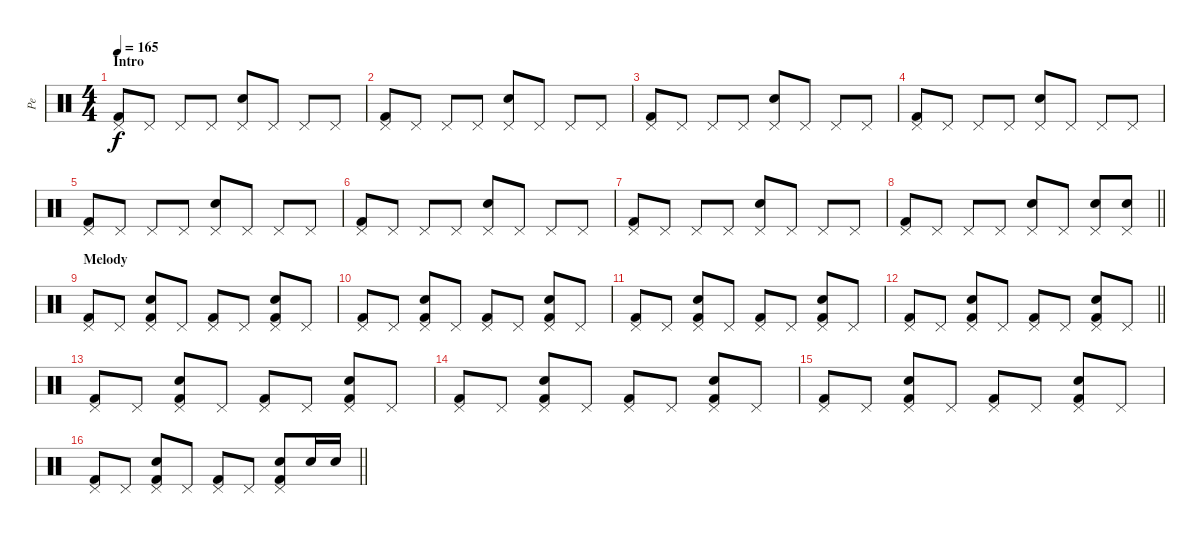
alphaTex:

\track ("Pe" "Pe") {instrument percussion}
\staff {score}
\articulation defaults
\ts (4 4)
\section ("" "Intro")
\tempo 165
\clef neutral
\ks c
("Kick (hit) 2" "Pedal Hi-Hat (hit)").8{dy f} "Pedal Hi-Hat (hit)".8 "Pedal Hi-Hat (hit)".8 "Pedal Hi-Hat (hit)".8 ("Electric Snare (hit)" "Pedal Hi-Hat (hit)").8 "Pedal Hi-Hat (hit)".8 "Pedal Hi-Hat (hit)".8 "Pedal Hi-Hat (hit)".8 |
("Kick (hit) 2" "Pedal Hi-Hat (hit)").8 "Pedal Hi-Hat (hit)".8 "Pedal Hi-Hat (hit)".8 "Pedal Hi-Hat (hit)".8 ("Electric Snare (hit)" "Pedal Hi-Hat (hit)").8 "Pedal Hi-Hat (hit)".8 "Pedal Hi-Hat (hit)".8 "Pedal Hi-Hat (hit)".8 |
("Kick (hit) 2" "Pedal Hi-Hat (hit)").8 "Pedal Hi-Hat (hit)".8 "Pedal Hi-Hat (hit)".8 "Pedal Hi-Hat (hit)".8 ("Electric Snare (hit)" "Pedal Hi-Hat (hit)").8 "Pedal Hi-Hat (hit)".8 "Pedal Hi-Hat (hit)".8 "Pedal Hi-Hat (hit)".8 |
("Kick (hit) 2" "Pedal Hi-Hat (hit)").8 "Pedal Hi-Hat (hit)".8 "Pedal Hi-Hat (hit)".8 "Pedal Hi-Hat (hit)".8 ("Electric Snare (hit)" "Pedal Hi-Hat (hit)").8 "Pedal Hi-Hat (hit)".8 "Pedal Hi-Hat (hit)".8 "Pedal Hi-Hat (hit)".8 |
("Kick (hit) 2" "Pedal Hi-Hat (hit)").8 "Pedal Hi-Hat (hit)".8 "Pedal Hi-Hat (hit)".8 "Pedal Hi-Hat (hit)".8 ("Electric Snare (hit)" "Pedal Hi-Hat (hit)").8 "Pedal Hi-Hat (hit)".8 "Pedal Hi-Hat (hit)".8 "Pedal Hi-Hat (hit)".8 |
("Kick (hit) 2" "Pedal Hi-Hat (hit)").8 "Pedal Hi-Hat (hit)".8 "Pedal Hi-Hat (hit)".8 "Pedal Hi-Hat (hit)".8 ("Electric Snare (hit)" "Pedal Hi-Hat (hit)").8 "Pedal Hi-Hat (hit)".8 "Pedal Hi-Hat (hit)".8 "Pedal Hi-Hat (hit)".8 |
("Kick (hit) 2" "Pedal Hi-Hat (hit)").8 "Pedal Hi-Hat (hit)".8 "Pedal Hi-Hat (hit)".8 "Pedal Hi-Hat (hit)".8 ("Electric Snare (hit)" "Pedal Hi-Hat (hit)").8 "Pedal Hi-Hat (hit)".8 "Pedal Hi-Hat (hit)".8 "Pedal Hi-Hat (hit)".8 |
\barLineRight lightlight
("Kick (hit) 2" "Pedal Hi-Hat (hit)").8 "Pedal Hi-Hat (hit)".8 "Pedal Hi-Hat (hit)".8 "Pedal Hi-Hat (hit)".8 ("Electric Snare (hit)" "Pedal Hi-Hat (hit)").8 "Pedal Hi-Hat (hit)".8 ("Electric Snare (hit)" "Pedal Hi-Hat (hit)").8 ("Electric Snare (hit)" "Pedal Hi-Hat (hit)").8 |
\section ("" "Melody")
("Pedal Hi-Hat (hit)" "Kick (hit) 2").8 "Pedal Hi-Hat (hit)".8 ("Electric Snare (hit)" "Pedal Hi-Hat (hit)" "Kick (hit) 2").8 "Pedal Hi-Hat (hit)".8 ("Pedal Hi-Hat (hit)" "Kick (hit) 2").8 "Pedal Hi-Hat (hit)".8 ("Electric Snare (hit)" "Pedal Hi-Hat (hit)" "Kick (hit) 2").8 "Pedal Hi-Hat (hit)".8 |
("Pedal Hi-Hat (hit)" "Kick (hit) 2").8 "Pedal Hi-Hat (hit)".8 ("Electric Snare (hit)" "Pedal Hi-Hat (hit)" "Kick (hit) 2").8 "Pedal Hi-Hat (hit)".8 ("Pedal Hi-Hat (hit)" "Kick (hit) 2").8 "Pedal Hi-Hat (hit)".8 ("Electric Snare (hit)" "Pedal Hi-Hat (hit)" "Kick (hit) 2").8 "Pedal Hi-Hat (hit)".8 |
("Pedal Hi-Hat (hit)" "Kick (hit) 2").8 "Pedal Hi-Hat (hit)".8 ("Electric Snare (hit)" "Pedal Hi-Hat (hit)" "Kick (hit) 2").8 "Pedal Hi-Hat (hit)".8 ("Pedal Hi-Hat (hit)" "Kick (hit) 2").8 "Pedal Hi-Hat (hit)".8 ("Electric Snare (hit)" "Pedal Hi-Hat (hit)" "Kick (hit) 2").8 "Pedal Hi-Hat (hit)".8 |
\barLineRight lightlight
("Pedal Hi-Hat (hit)" "Kick (hit) 2").8 "Pedal Hi-Hat (hit)".8 ("Electric Snare (hit)" "Pedal Hi-Hat (hit)" "Kick (hit) 2").8 "Pedal Hi-Hat (hit)".8 ("Pedal Hi-Hat (hit)" "Kick (hit) 2").8 "Pedal Hi-Hat (hit)".8 ("Electric Snare (hit)" "Pedal Hi-Hat (hit)" "Kick (hit) 2").8 "Pedal Hi-Hat (hit)".8 |
("Pedal Hi-Hat (hit)" "Kick (hit) 2").8 "Pedal Hi-Hat (hit)".8 ("Electric Snare (hit)" "Pedal Hi-Hat (hit)" "Kick (hit) 2").8 "Pedal Hi-Hat (hit)".8 ("Pedal Hi-Hat (hit)" "Kick (hit) 2").8 "Pedal Hi-Hat (hit)".8 ("Electric Snare (hit)" "Pedal Hi-Hat (hit)" "Kick (hit) 2").8 "Pedal Hi-Hat (hit)".8 |
("Pedal Hi-Hat (hit)" "Kick (hit) 2").8 "Pedal Hi-Hat (hit)".8 ("Electric Snare (hit)" "Pedal Hi-Hat (hit)" "Kick (hit) 2").8 "Pedal Hi-Hat (hit)".8 ("Pedal Hi-Hat (hit)" "Kick (hit) 2").8 "Pedal Hi-Hat (hit)".8 ("Electric Snare (hit)" "Pedal Hi-Hat (hit)" "Kick (hit) 2").8 "Pedal Hi-Hat (hit)".8 |
("Pedal Hi-Hat (hit)" "Kick (hit) 2").8 "Pedal Hi-Hat (hit)".8 ("Electric Snare (hit)" "Pedal Hi-Hat (hit)" "Kick (hit) 2").8 "Pedal Hi-Hat (hit)".8 ("Pedal Hi-Hat (hit)" "Kick (hit) 2").8 "Pedal Hi-Hat (hit)".8 ("Electric Snare (hit)" "Pedal Hi-Hat (hit)" "Kick (hit) 2").8 "Pedal Hi-Hat (hit)".8 |
\barLineRight lightlight
("Pedal Hi-Hat (hit)" "Kick (hit) 2").8 "Pedal Hi-Hat (hit)".8 ("Electric Snare (hit)" "Pedal Hi-Hat (hit)" "Kick (hit) 2").8 "Pedal Hi-Hat (hit)".8 ("Pedal Hi-Hat (hit)" "Kick (hit) 2").8 "Pedal Hi-Hat (hit)".8 ("Electric Snare (hit)" "Pedal Hi-Hat (hit)" "Kick (hit) 2").8 "Electric Snare (hit)".16 "Electric Snare (hit)".16
